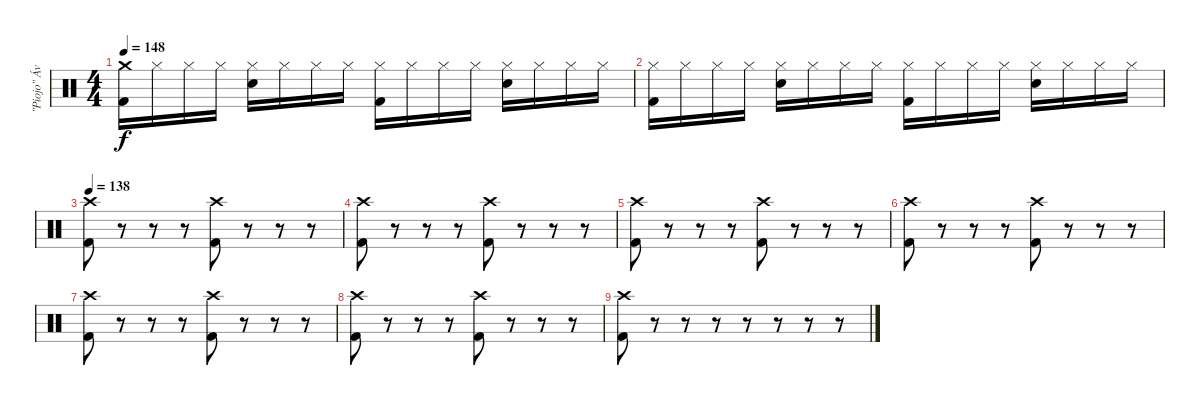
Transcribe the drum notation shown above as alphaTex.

\track ("\"Piojo\" Ávalos" "\"Piojo\" Áv") {instrument percussion}
\staff {score}
\articulation defaults
\ts (4 4)
\tempo 148
\clef neutral
\ks c
("Crash medium (hit)" "Kick (hit) 2").16{dy f} "Hi-Hat (closed)".16 "Hi-Hat (closed)".16 "Hi-Hat (closed)".16 ("Hi-Hat (closed)" "Electric Snare (hit)").16 "Hi-Hat (closed)".16 "Hi-Hat (closed)".16 "Hi-Hat (closed)".16 ("Hi-Hat (closed)" "Kick (hit) 2").16 "Hi-Hat (closed)".16 "Hi-Hat (closed)".16 "Hi-Hat (closed)".16 ("Hi-Hat (closed)" "Electric Snare (hit)").16 "Hi-Hat (closed)".16 "Hi-Hat (closed)".16 "Hi-Hat (closed)".16 |
("Hi-Hat (closed)" "Kick (hit) 2").16 "Hi-Hat (closed)".16 "Hi-Hat (closed)".16 "Hi-Hat (closed)".16 ("Hi-Hat (closed)" "Electric Snare (hit)").16 "Hi-Hat (closed)".16 "Hi-Hat (closed)".16 "Hi-Hat (closed)".16 ("Hi-Hat (closed)" "Kick (hit) 2").16 "Hi-Hat (closed)".16 "Hi-Hat (closed)".16 "Hi-Hat (closed)".16 ("Hi-Hat (closed)" "Electric Snare (hit)").16 "Hi-Hat (closed)".16 "Hi-Hat (closed)".16 "Hi-Hat (closed)".16 |
\tempo 138
("Crash high (hit)" "Kick (hit) 2").8 r.8 r.8 r.8 ("Crash high (hit)" "Kick (hit) 2").8 r.8 r.8 r.8 |
("Crash high (hit)" "Kick (hit) 2").8 r.8 r.8 r.8 ("Crash high (hit)" "Kick (hit) 2").8 r.8 r.8 r.8 |
("Crash high (hit)" "Kick (hit) 2").8 r.8 r.8 r.8 ("Crash high (hit)" "Kick (hit) 2").8 r.8 r.8 r.8 |
("Crash high (hit)" "Kick (hit) 2").8 r.8 r.8 r.8 ("Crash high (hit)" "Kick (hit) 2").8 r.8 r.8 r.8 |
("Crash high (hit)" "Kick (hit) 2").8 r.8 r.8 r.8 ("Crash high (hit)" "Kick (hit) 2").8 r.8 r.8 r.8 |
("Crash high (hit)" "Kick (hit) 2").8 r.8 r.8 r.8 ("Crash high (hit)" "Kick (hit) 2").8 r.8 r.8 r.8 |
("Crash high (hit)" "Kick (hit) 2").8 r.8 r.8 r.8 r.8 r.8 r.8 r.8
